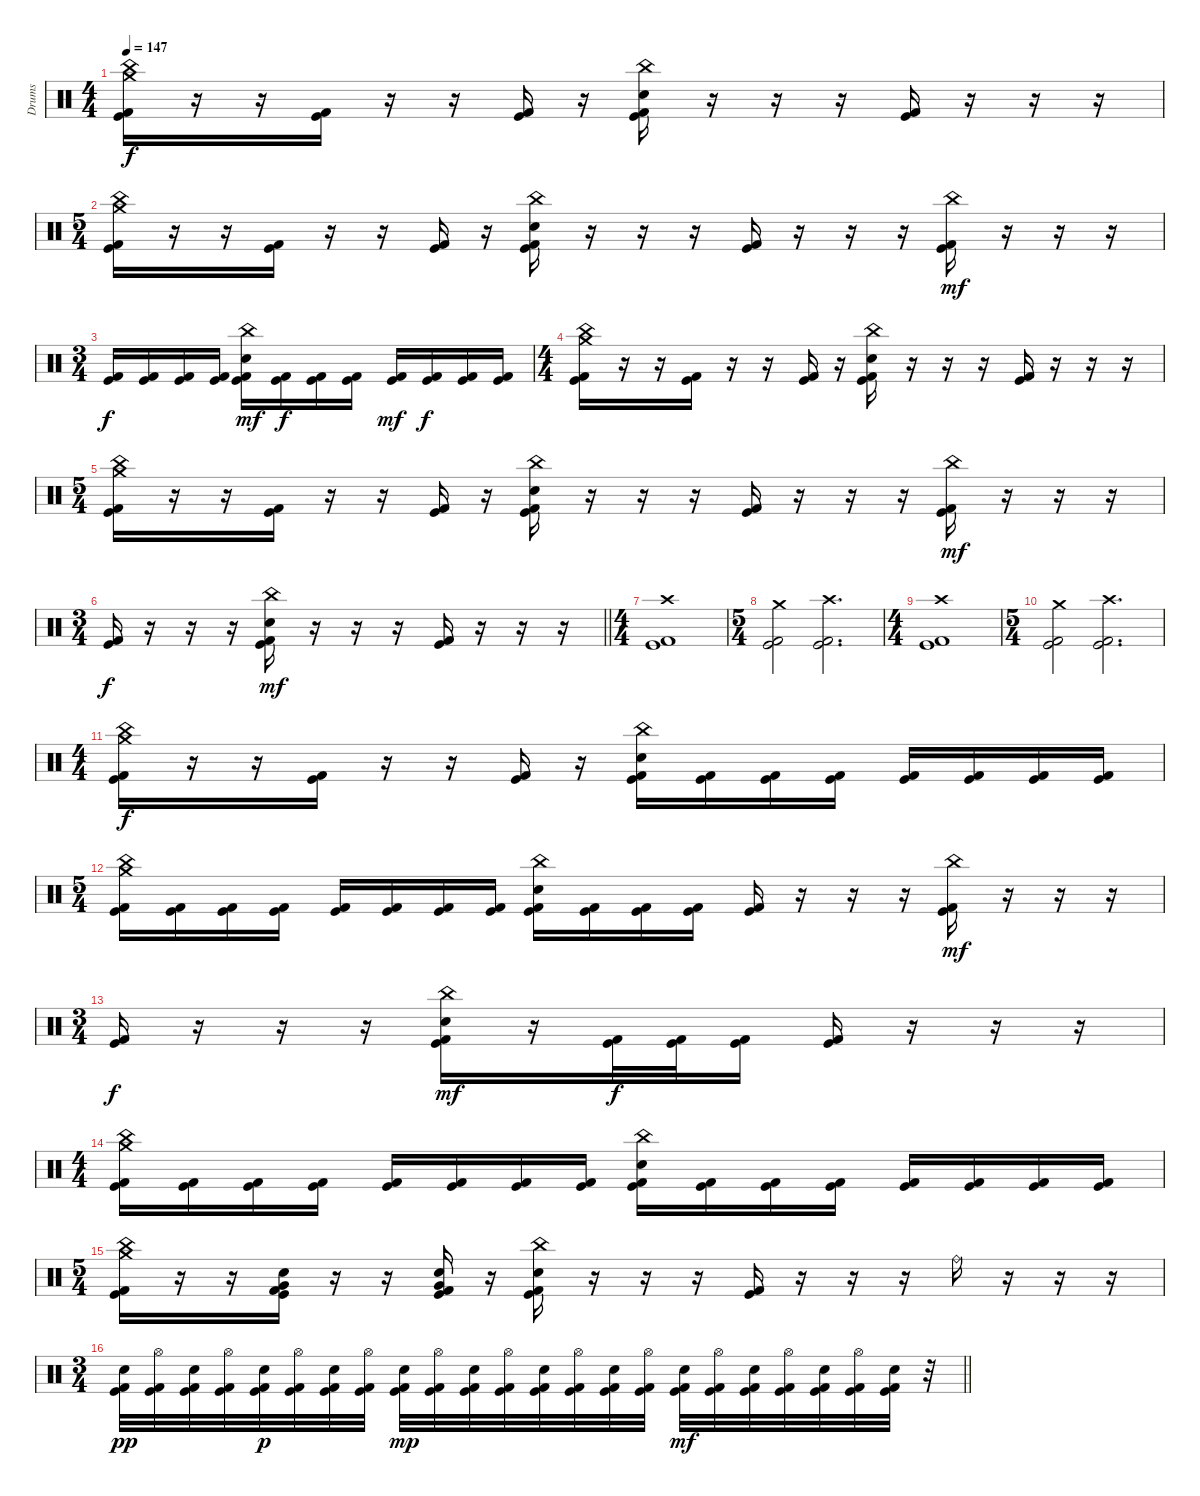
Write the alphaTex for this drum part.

\track ("Drums" "Drums") {instrument percussion}
\staff {score}
\articulation defaults
\ts (4 4)
\tempo 147
\clef neutral
\ks c
("Crash medium (hit)" "China (hit)" "Kick (hit)" "Kick (hit) 2").16{dy f} r.16 r.16 ("Kick (hit)" "Kick (hit) 2").16 r.16 r.16 ("Kick (hit)" "Kick (hit) 2").16 r.16 ("China (hit)" "Electric Snare (hit)" "Kick (hit)" "Kick (hit) 2").16 r.16 r.16 r.16 ("Kick (hit)" "Kick (hit) 2").16 r.16 r.16 r.16 |
\ts (5 4)
("Crash medium (hit)" "China (hit)" "Kick (hit)" "Kick (hit) 2").16 r.16 r.16 ("Kick (hit)" "Kick (hit) 2").16 r.16 r.16 ("Kick (hit)" "Kick (hit) 2").16 r.16 ("China (hit)" "Electric Snare (hit)" "Kick (hit)" "Kick (hit) 2").16 r.16 r.16 r.16 ("Kick (hit)" "Kick (hit) 2").16 r.16 r.16 r.16 ("China (hit)" "Kick (hit)" "Kick (hit) 2").16{dy mf} r.16 r.16 r.16 |
\ts (3 4)
("Kick (hit)" "Kick (hit) 2").16{dy f} ("Kick (hit)" "Kick (hit) 2").16 ("Kick (hit)" "Kick (hit) 2").16 ("Kick (hit)" "Kick (hit) 2").16 ("China (hit)" "Electric Snare (hit)" "Kick (hit)" "Kick (hit) 2").16{dy mf} ("Kick (hit)" "Kick (hit) 2").16{dy f} ("Kick (hit)" "Kick (hit) 2").16 ("Kick (hit)" "Kick (hit) 2").16 ("Kick (hit)" "Kick (hit) 2").16{dy mf} ("Kick (hit)" "Kick (hit) 2").16{dy f} ("Kick (hit)" "Kick (hit) 2").16 ("Kick (hit)" "Kick (hit) 2").16 |
\ts (4 4)
("Crash medium (hit)" "China (hit)" "Kick (hit)" "Kick (hit) 2").16 r.16 r.16 ("Kick (hit)" "Kick (hit) 2").16 r.16 r.16 ("Kick (hit)" "Kick (hit) 2").16 r.16 ("China (hit)" "Electric Snare (hit)" "Kick (hit)" "Kick (hit) 2").16 r.16 r.16 r.16 ("Kick (hit)" "Kick (hit) 2").16 r.16 r.16 r.16 |
\ts (5 4)
("Crash medium (hit)" "China (hit)" "Kick (hit)" "Kick (hit) 2").16 r.16 r.16 ("Kick (hit)" "Kick (hit) 2").16 r.16 r.16 ("Kick (hit)" "Kick (hit) 2").16 r.16 ("China (hit)" "Electric Snare (hit)" "Kick (hit)" "Kick (hit) 2").16 r.16 r.16 r.16 ("Kick (hit)" "Kick (hit) 2").16 r.16 r.16 r.16 ("China (hit)" "Kick (hit)" "Kick (hit) 2").16{dy mf} r.16 r.16 r.16 |
\ts (3 4)
\barLineRight lightlight
("Kick (hit)" "Kick (hit) 2").16{dy f} r.16 r.16 r.16 ("China (hit)" "Electric Snare (hit)" "Kick (hit)" "Kick (hit) 2").16{dy mf} r.16 r.16 r.16 ("Kick (hit)" "Kick (hit) 2").16 r.16 r.16 r.16 |
\ts (4 4)
("Crash high (hit)" "Kick (hit)" "Kick (hit) 2").1 |
\ts (5 4)
("Crash medium (hit)" "Kick (hit)" "Kick (hit) 2").2 ("Crash high (hit)" "Kick (hit)" "Kick (hit) 2").2{d} |
\ts (4 4)
("Crash high (hit)" "Kick (hit)" "Kick (hit) 2").1 |
\ts (5 4)
("Crash medium (hit)" "Kick (hit)" "Kick (hit) 2").2 ("Crash high (hit)" "Kick (hit)" "Kick (hit) 2").2{d} |
\ts (4 4)
("Crash medium (hit)" "China (hit)" "Kick (hit)" "Kick (hit) 2").16{dy f} r.16 r.16 ("Kick (hit)" "Kick (hit) 2").16 r.16 r.16 ("Kick (hit)" "Kick (hit) 2").16 r.16 ("China (hit)" "Electric Snare (hit)" "Kick (hit)" "Kick (hit) 2").16 ("Kick (hit)" "Kick (hit) 2").16 ("Kick (hit)" "Kick (hit) 2").16 ("Kick (hit)" "Kick (hit) 2").16 ("Kick (hit)" "Kick (hit) 2").16 ("Kick (hit)" "Kick (hit) 2").16 ("Kick (hit)" "Kick (hit) 2").16 ("Kick (hit)" "Kick (hit) 2").16 |
\ts (5 4)
("Crash medium (hit)" "China (hit)" "Kick (hit)" "Kick (hit) 2").16 ("Kick (hit)" "Kick (hit) 2").16 ("Kick (hit)" "Kick (hit) 2").16 ("Kick (hit)" "Kick (hit) 2").16 ("Kick (hit)" "Kick (hit) 2").16 ("Kick (hit)" "Kick (hit) 2").16 ("Kick (hit)" "Kick (hit) 2").16 ("Kick (hit)" "Kick (hit) 2").16 ("China (hit)" "Electric Snare (hit)" "Kick (hit)" "Kick (hit) 2").16 ("Kick (hit)" "Kick (hit) 2").16 ("Kick (hit)" "Kick (hit) 2").16 ("Kick (hit)" "Kick (hit) 2").16 ("Kick (hit)" "Kick (hit) 2").16 r.16 r.16 r.16 ("China (hit)" "Kick (hit)" "Kick (hit) 2").16{dy mf} r.16 r.16 r.16 |
\ts (3 4)
("Kick (hit)" "Kick (hit) 2").16{dy f} r.16 r.16 r.16 ("China (hit)" "Electric Snare (hit)" "Kick (hit)" "Kick (hit) 2").16{dy mf} r.16 ("Kick (hit)" "Kick (hit) 2").32{dy f} ("Kick (hit)" "Kick (hit) 2").32 ("Kick (hit)" "Kick (hit) 2").16 ("Kick (hit)" "Kick (hit) 2").16 r.16 r.16 r.16 |
\ts (4 4)
("Crash medium (hit)" "China (hit)" "Kick (hit)" "Kick (hit) 2").16 ("Kick (hit)" "Kick (hit) 2").16 ("Kick (hit)" "Kick (hit) 2").16 ("Kick (hit)" "Kick (hit) 2").16 ("Kick (hit)" "Kick (hit) 2").16 ("Kick (hit)" "Kick (hit) 2").16 ("Kick (hit)" "Kick (hit) 2").16 ("Kick (hit)" "Kick (hit) 2").16 ("China (hit)" "Electric Snare (hit)" "Kick (hit)" "Kick (hit) 2").16 ("Kick (hit)" "Kick (hit) 2").16 ("Kick (hit)" "Kick (hit) 2").16 ("Kick (hit)" "Kick (hit) 2").16 ("Kick (hit)" "Kick (hit) 2").16 ("Kick (hit)" "Kick (hit) 2").16 ("Kick (hit)" "Kick (hit) 2").16 ("Kick (hit)" "Kick (hit) 2").16 |
\ts (5 4)
("Crash medium (hit)" "China (hit)" "Kick (hit)" "Kick (hit) 2").16 r.16 r.16 ("Electric Snare (hit)" "Very Low Tom (hit)" "Kick (hit)" "Kick (hit) 2").16 r.16 r.16 ("Electric Snare (hit)" "Very Low Tom (hit)" "Kick (hit)" "Kick (hit) 2").16 r.16 ("China (hit)" "Electric Snare (hit)" "Kick (hit)" "Kick (hit) 2").16 r.16 r.16 r.16 ("Kick (hit)" "Kick (hit) 2").16 r.16 r.16 r.16 "Ride (bell)".16 r.16 r.16 r.16 |
\ts (3 4)
\barLineRight lightlight
("Electric Snare (hit)" "Kick (hit)" "Kick (hit) 2").32{dy pp} ("Hi-Hat (open)" "Kick (hit)" "Kick (hit) 2").32 ("Electric Snare (hit)" "Kick (hit)" "Kick (hit) 2").32 ("Hi-Hat (open)" "Kick (hit)" "Kick (hit) 2").32 ("Electric Snare (hit)" "Kick (hit)" "Kick (hit) 2").32{dy p} ("Hi-Hat (open)" "Kick (hit)" "Kick (hit) 2").32 ("Electric Snare (hit)" "Kick (hit)" "Kick (hit) 2").32 ("Hi-Hat (open)" "Kick (hit)" "Kick (hit) 2").32 ("Electric Snare (hit)" "Kick (hit)" "Kick (hit) 2").32{dy mp} ("Hi-Hat (open)" "Kick (hit)" "Kick (hit) 2").32 ("Electric Snare (hit)" "Kick (hit)" "Kick (hit) 2").32 ("Hi-Hat (open)" "Kick (hit)" "Kick (hit) 2").32 ("Electric Snare (hit)" "Kick (hit)" "Kick (hit) 2").32 ("Hi-Hat (open)" "Kick (hit)" "Kick (hit) 2").32 ("Electric Snare (hit)" "Kick (hit)" "Kick (hit) 2").32 ("Hi-Hat (open)" "Kick (hit)" "Kick (hit) 2").32 ("Electric Snare (hit)" "Kick (hit)" "Kick (hit) 2").32{dy mf} ("Hi-Hat (open)" "Kick (hit)" "Kick (hit) 2").32 ("Electric Snare (hit)" "Kick (hit)" "Kick (hit) 2").32 ("Hi-Hat (open)" "Kick (hit)" "Kick (hit) 2").32 ("Electric Snare (hit)" "Kick (hit)" "Kick (hit) 2").32 ("Hi-Hat (open)" "Kick (hit)" "Kick (hit) 2").32 ("Electric Snare (hit)" "Kick (hit)" "Kick (hit) 2").32 r.32
